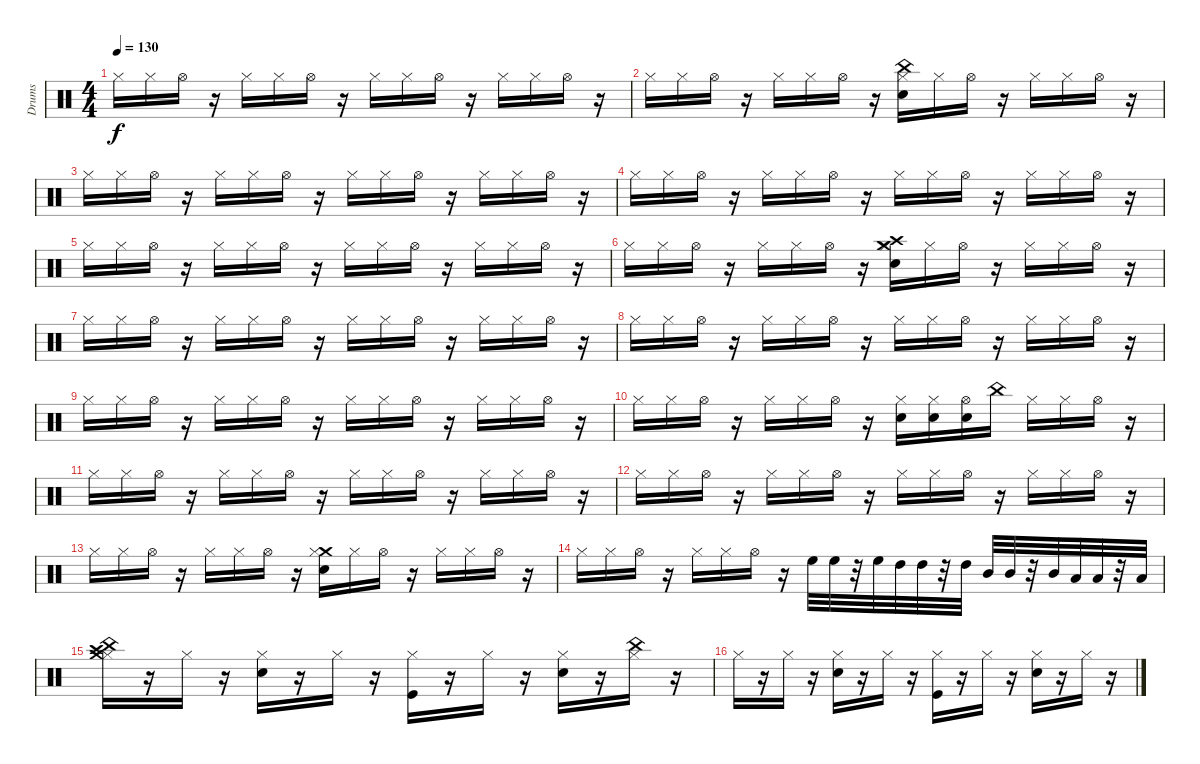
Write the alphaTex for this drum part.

\track ("Drums" "Drums") {instrument percussion}
\staff {score}
\articulation defaults
\ts (4 4)
\tempo 130
\clef neutral
\ks c "Hi-Hat (closed)".16{dy f} "Hi-Hat (closed)".16 "Hi-Hat (open)".16
r.16 "Hi-Hat (closed)".16 "Hi-Hat (closed)".16 "Hi-Hat (open)".16 r.16 "Hi-Hat (closed)".16 "Hi-Hat (closed)".16 "Hi-Hat (open)".16 r.16 "Hi-Hat (closed)".16 "Hi-Hat (closed)".16 "Hi-Hat (open)".16 r.16 |
"Hi-Hat (closed)".16 "Hi-Hat (closed)".16 "Hi-Hat (open)".16 r.16 "Hi-Hat (closed)".16 "Hi-Hat (closed)".16 "Hi-Hat (open)".16 r.16 ("China (hit)" "Electric Snare (hit)" "Hi-Hat (closed)").16 "Hi-Hat (closed)".16 "Hi-Hat (open)".16 r.16 "Hi-Hat (closed)".16 "Hi-Hat (closed)".16 "Hi-Hat (open)".16 r.16 |
"Hi-Hat (closed)".16 "Hi-Hat (closed)".16 "Hi-Hat (open)".16 r.16 "Hi-Hat (closed)".16 "Hi-Hat (closed)".16 "Hi-Hat (open)".16 r.16 "Hi-Hat (closed)".16 "Hi-Hat (closed)".16 "Hi-Hat (open)".16 r.16 "Hi-Hat (closed)".16 "Hi-Hat (closed)".16 "Hi-Hat (open)".16 r.16 |
"Hi-Hat (closed)".16 "Hi-Hat (closed)".16 "Hi-Hat (open)".16 r.16 "Hi-Hat (closed)".16 "Hi-Hat (closed)".16 "Hi-Hat (open)".16 r.16 "Hi-Hat (closed)".16 "Hi-Hat (closed)".16 "Hi-Hat (open)".16 r.16 "Hi-Hat (closed)".16 "Hi-Hat (closed)".16 "Hi-Hat (open)".16 r.16 |
"Hi-Hat (closed)".16 "Hi-Hat (closed)".16 "Hi-Hat (open)".16 r.16 "Hi-Hat (closed)".16 "Hi-Hat (closed)".16 "Hi-Hat (open)".16 r.16 "Hi-Hat (closed)".16 "Hi-Hat (closed)".16 "Hi-Hat (open)".16 r.16 "Hi-Hat (closed)".16 "Hi-Hat (closed)".16 "Hi-Hat (open)".16 r.16 |
"Hi-Hat (closed)".16 "Hi-Hat (closed)".16 "Hi-Hat (open)".16 r.16 "Hi-Hat (closed)".16 "Hi-Hat (closed)".16 "Hi-Hat (open)".16 r.16 ("Electric Snare (hit)" "Crash high (hit)" "Crash medium (hit)" "Hi-Hat (closed)").16 "Hi-Hat (closed)".16 "Hi-Hat (open)".16 r.16 "Hi-Hat (closed)".16 "Hi-Hat (closed)".16 "Hi-Hat (open)".16 r.16 |
"Hi-Hat (closed)".16 "Hi-Hat (closed)".16 "Hi-Hat (open)".16 r.16 "Hi-Hat (closed)".16 "Hi-Hat (closed)".16 "Hi-Hat (open)".16 r.16 "Hi-Hat (closed)".16 "Hi-Hat (closed)".16 "Hi-Hat (open)".16 r.16 "Hi-Hat (closed)".16 "Hi-Hat (closed)".16 "Hi-Hat (open)".16 r.16 |
"Hi-Hat (closed)".16 "Hi-Hat (closed)".16 "Hi-Hat (open)".16 r.16 "Hi-Hat (closed)".16 "Hi-Hat (closed)".16 "Hi-Hat (open)".16 r.16 "Hi-Hat (closed)".16 "Hi-Hat (closed)".16 "Hi-Hat (open)".16 r.16 "Hi-Hat (closed)".16 "Hi-Hat (closed)".16 "Hi-Hat (open)".16 r.16 |
"Hi-Hat (closed)".16 "Hi-Hat (closed)".16 "Hi-Hat (open)".16 r.16 "Hi-Hat (closed)".16 "Hi-Hat (closed)".16 "Hi-Hat (open)".16 r.16 "Hi-Hat (closed)".16 "Hi-Hat (closed)".16 "Hi-Hat (open)".16 r.16 "Hi-Hat (closed)".16 "Hi-Hat (closed)".16 "Hi-Hat (open)".16 r.16 |
"Hi-Hat (closed)".16 "Hi-Hat (closed)".16 "Hi-Hat (open)".16 r.16 "Hi-Hat (closed)".16 "Hi-Hat (closed)".16 "Hi-Hat (open)".16 r.16 ("Electric Snare (hit)" "Hi-Hat (closed)").16 ("Electric Snare (hit)" "Hi-Hat (closed)").16 ("Electric Snare (hit)" "Hi-Hat (open)").16 "China (hit)".16 "Hi-Hat (closed)".16 "Hi-Hat (closed)".16 "Hi-Hat (open)".16 r.16 |
"Hi-Hat (closed)".16 "Hi-Hat (closed)".16 "Hi-Hat (open)".16 r.16 "Hi-Hat (closed)".16 "Hi-Hat (closed)".16 "Hi-Hat (open)".16 r.16 "Hi-Hat (closed)".16 "Hi-Hat (closed)".16 "Hi-Hat (open)".16 r.16 "Hi-Hat (closed)".16 "Hi-Hat (closed)".16 "Hi-Hat (open)".16 r.16 |
"Hi-Hat (closed)".16 "Hi-Hat (closed)".16 "Hi-Hat (open)".16 r.16 "Hi-Hat (closed)".16 "Hi-Hat (closed)".16 "Hi-Hat (open)".16 r.16 "Hi-Hat (closed)".16 "Hi-Hat (closed)".16 "Hi-Hat (open)".16 r.16 "Hi-Hat (closed)".16 "Hi-Hat (closed)".16 "Hi-Hat (open)".16 r.16 |
"Hi-Hat (closed)".16 "Hi-Hat (closed)".16 "Hi-Hat (open)".16 r.16 "Hi-Hat (closed)".16 "Hi-Hat (closed)".16 "Hi-Hat (open)".16 r.16 ("Electric Snare (hit)" "Crash medium (hit)" "Hi-Hat (closed)").16 "Hi-Hat (closed)".16 "Hi-Hat (open)".16 r.16 "Hi-Hat (closed)".16 "Hi-Hat (closed)".16 "Hi-Hat (open)".16 r.16 |
"Hi-Hat (closed)".16 "Hi-Hat (closed)".16 "Hi-Hat (open)".16 r.16 "Hi-Hat (closed)".16 "Hi-Hat (closed)".16 "Hi-Hat (open)".16 r.16 "High Floor Tom (hit)".32 "High Floor Tom (hit)".32 r.32 "High Floor Tom (hit)".32 "High Tom (hit)".32 "High Tom (hit)".32 r.32 "High Tom (hit)".32 "Mid Tom (hit)".32 "Mid Tom (hit)".32 r.32 "Mid Tom (hit)".32 "Low Tom (hit)".32 "Low Tom (hit)".32 r.32 "Low Tom (hit)".32 |
("Hi-Hat (closed)" "Crash high (hit)" "China (hit)" "Crash medium (hit)").16 r.16 "Hi-Hat (closed)".16 r.16 ("Snare (hit) 2" "Hi-Hat (closed)").16 r.16 "Hi-Hat (closed)".16 r.16 ("Kick (hit)" "Hi-Hat (closed)").16 r.16 "Hi-Hat (closed)".16 r.16 ("Snare (hit) 2" "Hi-Hat (closed)").16 r.16 ("China (hit)" "Hi-Hat (closed)").16 r.16 |
"Hi-Hat (closed)".16 r.16 "Hi-Hat (closed)".16 r.16 ("Snare (hit) 2" "Hi-Hat (closed)").16 r.16 "Hi-Hat (closed)".16 r.16 ("Kick (hit)" "Hi-Hat (closed)").16 r.16 "Hi-Hat (closed)".16 r.16 ("Snare (hit) 2" "Hi-Hat (closed)").16 r.16 "Hi-Hat (closed)".16 r.16
